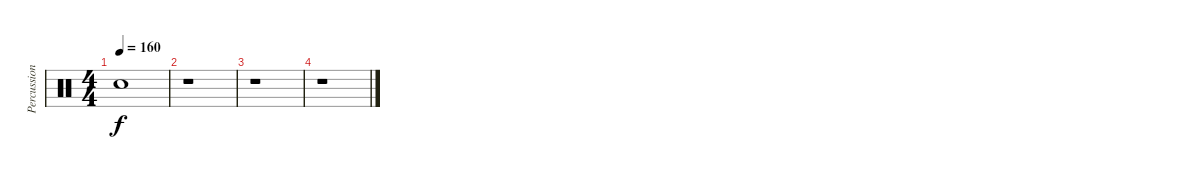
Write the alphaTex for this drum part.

\track ("Percussions" "Percussion") {instrument percussion}
\staff {score}
\articulation defaults
\ts (4 4)
\tempo 160
\clef neutral
\ks c "Snare (hit)"{t}.1{dy f}
|
r.1 |
r.1 |
r.1
